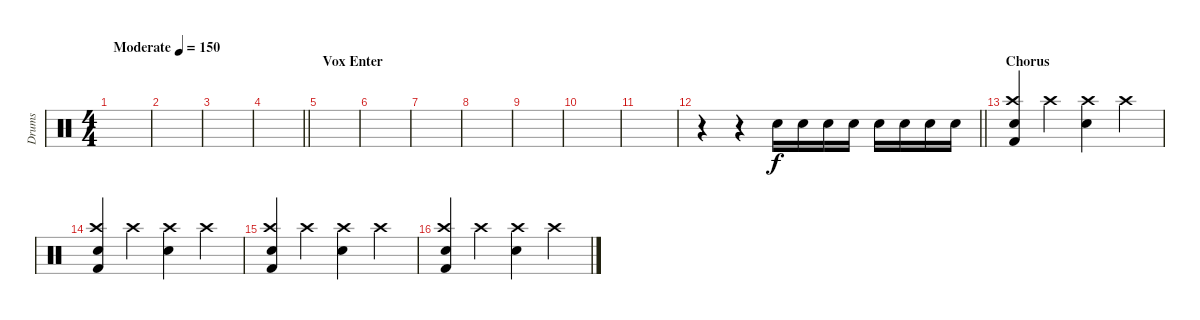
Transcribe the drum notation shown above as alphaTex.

\track ("Drums" "Drums") {instrument percussion}
\staff {score}
\articulation defaults
\ts (4 4)
\tempo (150 "Moderate")
\clef neutral
\ks c
|
|
|
\barLineRight lightlight
|
\section ("" "Vox Enter")
|
|
|
|
|
|
|
\barLineRight lightlight
r.4 r.4 "Electric Snare (hit)".16 "Electric Snare (hit)".16 "Electric Snare (hit)".16 "Electric Snare (hit)".16 "Electric Snare (hit)".16 "Electric Snare (hit)".16 "Electric Snare (hit)".16 "Electric Snare (hit)".16 |
\section ("" "Chorus")
("Crash high (hit)" "Electric Snare (hit)" "Kick (hit) 2").4 "Crash high (hit)".4 ("Crash high (hit)" "Electric Snare (hit)").4 "Crash high (hit)".4 |
("Crash high (hit)" "Electric Snare (hit)" "Kick (hit) 2").4 "Crash high (hit)".4 ("Crash high (hit)" "Electric Snare (hit)").4 "Crash high (hit)".4 |
("Crash high (hit)" "Electric Snare (hit)" "Kick (hit) 2").4 "Crash high (hit)".4 ("Crash high (hit)" "Electric Snare (hit)").4 "Crash high (hit)".4 |
("Crash high (hit)" "Electric Snare (hit)" "Kick (hit) 2").4 "Crash high (hit)".4 ("Crash high (hit)" "Electric Snare (hit)").4 "Crash high (hit)".4
